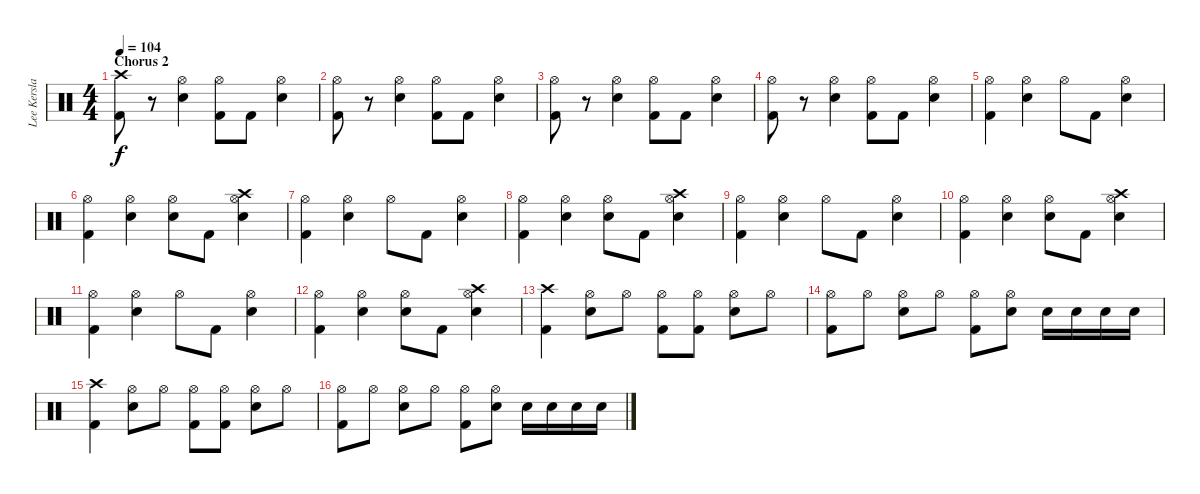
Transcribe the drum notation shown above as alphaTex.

\track ("Lee Kerslake" "Lee Kersla") {instrument percussion}
\staff {score}
\articulation defaults
\ts (4 4)
\section ("" "Chorus 2")
\tempo 104
\clef neutral
\ks c
("Crash high (hit)" "Kick (hit) 2").8{dy f} r.8 ("Hi-Hat (open)" "Electric Snare (hit)").4 ("Hi-Hat (open)" "Kick (hit) 2").8 "Kick (hit) 2".8 ("Hi-Hat (open)" "Electric Snare (hit)").4 |
("Hi-Hat (open)" "Kick (hit) 2").8 r.8 ("Hi-Hat (open)" "Electric Snare (hit)").4 ("Hi-Hat (open)" "Kick (hit) 2").8 "Kick (hit) 2".8 ("Hi-Hat (open)" "Electric Snare (hit)").4 |
("Hi-Hat (open)" "Kick (hit) 2").8 r.8 ("Hi-Hat (open)" "Electric Snare (hit)").4 ("Hi-Hat (open)" "Kick (hit) 2").8 "Kick (hit) 2".8 ("Hi-Hat (open)" "Electric Snare (hit)").4 |
("Hi-Hat (open)" "Kick (hit) 2").8 r.8 ("Hi-Hat (open)" "Electric Snare (hit)").4 ("Hi-Hat (open)" "Kick (hit) 2").8 "Kick (hit) 2".8 ("Hi-Hat (open)" "Electric Snare (hit)").4 |
("Hi-Hat (open)" "Kick (hit) 2").4 ("Hi-Hat (open)" "Electric Snare (hit)").4 "Hi-Hat (open)".8 "Kick (hit) 2".8 ("Hi-Hat (open)" "Electric Snare (hit)").4 |
("Hi-Hat (open)" "Kick (hit) 2").4 ("Hi-Hat (open)" "Electric Snare (hit)").4 ("Hi-Hat (open)" "Electric Snare (hit)").8 "Kick (hit) 2".8 ("Crash high (hit)" "Hi-Hat (open)" "Electric Snare (hit)").4 |
("Hi-Hat (open)" "Kick (hit) 2").4 ("Hi-Hat (open)" "Electric Snare (hit)").4 "Hi-Hat (open)".8 "Kick (hit) 2".8 ("Hi-Hat (open)" "Electric Snare (hit)").4 |
("Hi-Hat (open)" "Kick (hit) 2").4 ("Hi-Hat (open)" "Electric Snare (hit)").4 ("Hi-Hat (open)" "Electric Snare (hit)").8 "Kick (hit) 2".8 ("Crash high (hit)" "Hi-Hat (open)" "Electric Snare (hit)").4 |
("Hi-Hat (open)" "Kick (hit) 2").4 ("Hi-Hat (open)" "Electric Snare (hit)").4 "Hi-Hat (open)".8 "Kick (hit) 2".8 ("Hi-Hat (open)" "Electric Snare (hit)").4 |
("Hi-Hat (open)" "Kick (hit) 2").4 ("Hi-Hat (open)" "Electric Snare (hit)").4 ("Hi-Hat (open)" "Electric Snare (hit)").8 "Kick (hit) 2".8 ("Crash high (hit)" "Hi-Hat (open)" "Electric Snare (hit)").4 |
("Hi-Hat (open)" "Kick (hit) 2").4 ("Hi-Hat (open)" "Electric Snare (hit)").4 "Hi-Hat (open)".8 "Kick (hit) 2".8 ("Hi-Hat (open)" "Electric Snare (hit)").4 |
("Hi-Hat (open)" "Kick (hit) 2").4 ("Hi-Hat (open)" "Electric Snare (hit)").4 ("Hi-Hat (open)" "Electric Snare (hit)").8 "Kick (hit) 2".8 ("Crash high (hit)" "Hi-Hat (open)" "Electric Snare (hit)").4 |
("Crash high (hit)" "Kick (hit) 2").4 ("Hi-Hat (open)" "Electric Snare (hit)").8 "Hi-Hat (open)".8 ("Hi-Hat (open)" "Kick (hit) 2").8 ("Hi-Hat (open)" "Kick (hit) 2").8 ("Hi-Hat (open)" "Electric Snare (hit)").8 "Hi-Hat (open)".8 |
("Hi-Hat (open)" "Kick (hit) 2").8 "Hi-Hat (open)".8 ("Hi-Hat (open)" "Electric Snare (hit)").8 "Hi-Hat (open)".8 ("Hi-Hat (open)" "Kick (hit) 2").8 ("Hi-Hat (open)" "Electric Snare (hit)").8 "Electric Snare (hit)".16 "Electric Snare (hit)".16 "Electric Snare (hit)".16 "Electric Snare (hit)".16 |
("Crash high (hit)" "Kick (hit) 2").4 ("Hi-Hat (open)" "Electric Snare (hit)").8 "Hi-Hat (open)".8 ("Hi-Hat (open)" "Kick (hit) 2").8 ("Hi-Hat (open)" "Kick (hit) 2").8 ("Hi-Hat (open)" "Electric Snare (hit)").8 "Hi-Hat (open)".8 |
("Hi-Hat (open)" "Kick (hit) 2").8 "Hi-Hat (open)".8 ("Hi-Hat (open)" "Electric Snare (hit)").8 "Hi-Hat (open)".8 ("Hi-Hat (open)" "Kick (hit) 2").8 ("Hi-Hat (open)" "Electric Snare (hit)").8 "Electric Snare (hit)".16 "Electric Snare (hit)".16 "Electric Snare (hit)".16 "Electric Snare (hit)".16
